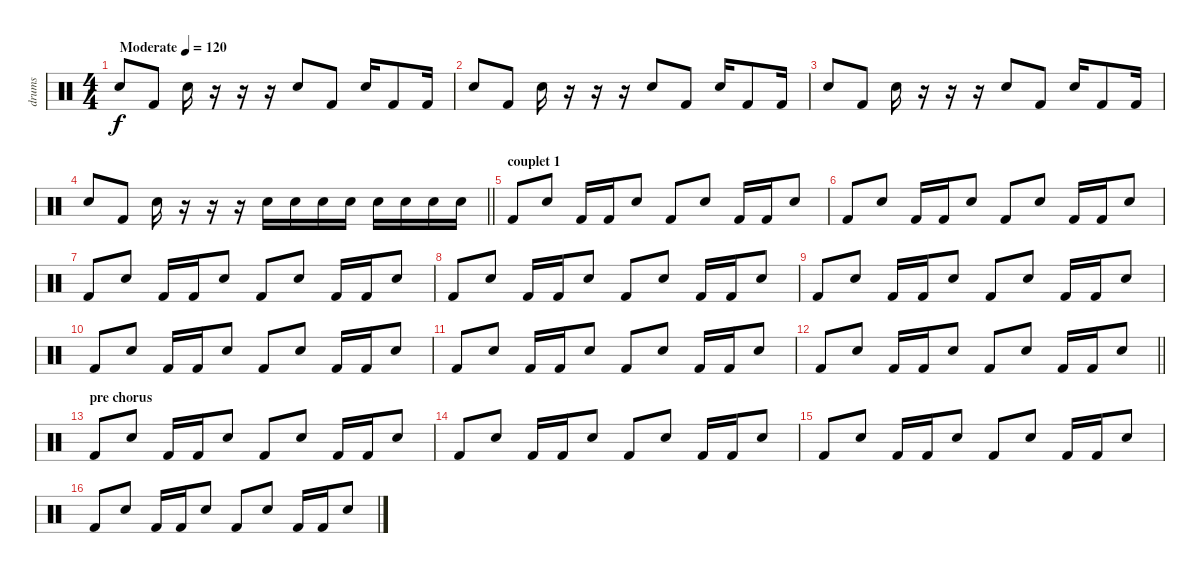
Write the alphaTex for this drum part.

\track ("drums" "drums") {instrument percussion}
\staff {score}
\articulation defaults
\ts (4 4)
\tempo (120 "Moderate")
\clef neutral
\ks c "Snare (hit) 2".8{dy f} "Kick (hit) 2".8 "Snare (hit) 2".16
r.16 r.16 r.16 "Snare (hit) 2".8 "Kick (hit) 2".8 "Snare (hit) 2".16 "Kick (hit) 2".8 "Kick (hit) 2".16 |
"Snare (hit) 2".8 "Kick (hit) 2".8 "Snare (hit) 2".16 r.16 r.16 r.16 "Snare (hit) 2".8 "Kick (hit) 2".8 "Snare (hit) 2".16 "Kick (hit) 2".8 "Kick (hit) 2".16 |
"Snare (hit) 2".8 "Kick (hit) 2".8 "Snare (hit) 2".16 r.16 r.16 r.16 "Snare (hit) 2".8 "Kick (hit) 2".8 "Snare (hit) 2".16 "Kick (hit) 2".8 "Kick (hit) 2".16 |
\barLineRight lightlight "Snare (hit) 2".8 "Kick (hit) 2".8 "Snare (hit) 2".16
r.16 r.16 r.16 "Snare (hit) 2".16 "Snare (hit) 2".16 "Snare (hit) 2".16 "Snare (hit) 2".16 "Snare (hit) 2".16 "Snare (hit) 2".16 "Snare (hit) 2".16 "Snare (hit) 2".16 |
\section ("" "couplet 1")
"Kick (hit) 2".8 "Snare (hit) 2".8 "Kick (hit) 2".16 "Kick (hit) 2".16 "Snare (hit) 2".8 "Kick (hit) 2".8 "Snare (hit) 2".8 "Kick (hit) 2".16 "Kick (hit) 2".16 "Snare (hit) 2".8 |
"Kick (hit) 2".8 "Snare (hit) 2".8 "Kick (hit) 2".16 "Kick (hit) 2".16 "Snare (hit) 2".8 "Kick (hit) 2".8 "Snare (hit) 2".8 "Kick (hit) 2".16 "Kick (hit) 2".16 "Snare (hit) 2".8 |
"Kick (hit) 2".8 "Snare (hit) 2".8 "Kick (hit) 2".16 "Kick (hit) 2".16 "Snare (hit) 2".8 "Kick (hit) 2".8 "Snare (hit) 2".8 "Kick (hit) 2".16 "Kick (hit) 2".16 "Snare (hit) 2".8 |
"Kick (hit) 2".8 "Snare (hit) 2".8 "Kick (hit) 2".16 "Kick (hit) 2".16 "Snare (hit) 2".8 "Kick (hit) 2".8 "Snare (hit) 2".8 "Kick (hit) 2".16 "Kick (hit) 2".16 "Snare (hit) 2".8 |
"Kick (hit) 2".8 "Snare (hit) 2".8 "Kick (hit) 2".16 "Kick (hit) 2".16 "Snare (hit) 2".8 "Kick (hit) 2".8 "Snare (hit) 2".8 "Kick (hit) 2".16 "Kick (hit) 2".16 "Snare (hit) 2".8 |
"Kick (hit) 2".8 "Snare (hit) 2".8 "Kick (hit) 2".16 "Kick (hit) 2".16 "Snare (hit) 2".8 "Kick (hit) 2".8 "Snare (hit) 2".8 "Kick (hit) 2".16 "Kick (hit) 2".16 "Snare (hit) 2".8 |
"Kick (hit) 2".8 "Snare (hit) 2".8 "Kick (hit) 2".16 "Kick (hit) 2".16 "Snare (hit) 2".8 "Kick (hit) 2".8 "Snare (hit) 2".8 "Kick (hit) 2".16 "Kick (hit) 2".16 "Snare (hit) 2".8 |
\barLineRight lightlight "Kick (hit) 2".8 "Snare (hit) 2".8 "Kick (hit) 2".16 "Kick (hit) 2".16 "Snare (hit) 2".8 "Kick (hit) 2".8 "Snare (hit) 2".8 "Kick (hit) 2".16 "Kick (hit) 2".16 "Snare (hit) 2".8
|
\section ("" "pre chorus")
"Kick (hit) 2".8 "Snare (hit) 2".8 "Kick (hit) 2".16 "Kick (hit) 2".16 "Snare (hit) 2".8 "Kick (hit) 2".8 "Snare (hit) 2".8 "Kick (hit) 2".16 "Kick (hit) 2".16 "Snare (hit) 2".8 |
"Kick (hit) 2".8 "Snare (hit) 2".8 "Kick (hit) 2".16 "Kick (hit) 2".16 "Snare (hit) 2".8 "Kick (hit) 2".8 "Snare (hit) 2".8 "Kick (hit) 2".16 "Kick (hit) 2".16 "Snare (hit) 2".8 |
"Kick (hit) 2".8 "Snare (hit) 2".8 "Kick (hit) 2".16 "Kick (hit) 2".16 "Snare (hit) 2".8 "Kick (hit) 2".8 "Snare (hit) 2".8 "Kick (hit) 2".16 "Kick (hit) 2".16 "Snare (hit) 2".8 |
"Kick (hit) 2".8 "Snare (hit) 2".8 "Kick (hit) 2".16 "Kick (hit) 2".16 "Snare (hit) 2".8 "Kick (hit) 2".8 "Snare (hit) 2".8 "Kick (hit) 2".16 "Kick (hit) 2".16 "Snare (hit) 2".8
